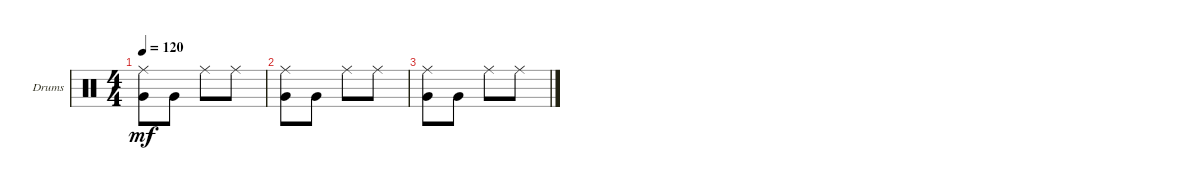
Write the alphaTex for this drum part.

\defaultSystemsLayout 4
\bracketExtendMode groupsimilarinstruments
\firstSystemTrackNameOrientation horizontal
\otherSystemsTrackNameOrientation horizontal
\track ("Drumkit" "Drums") {instrument percussion}
\staff {score}
\articulation defaults
\ts (4 4)
\tempo 120
\clef neutral
\ks c
("Very Low Tom (hit)" "Ride (middle)").8{dy mf} "Very Low Tom (hit)".8 "Ride (middle)".8 "Ride (middle)".8 |
("Very Low Tom (hit)" "Ride (middle)").8 "Very Low Tom (hit)".8 "Ride (middle)".8 "Ride (middle)".8 |
("Very Low Tom (hit)" "Ride (middle)").8 "Very Low Tom (hit)".8 "Ride (middle)".8 "Ride (middle)".8
